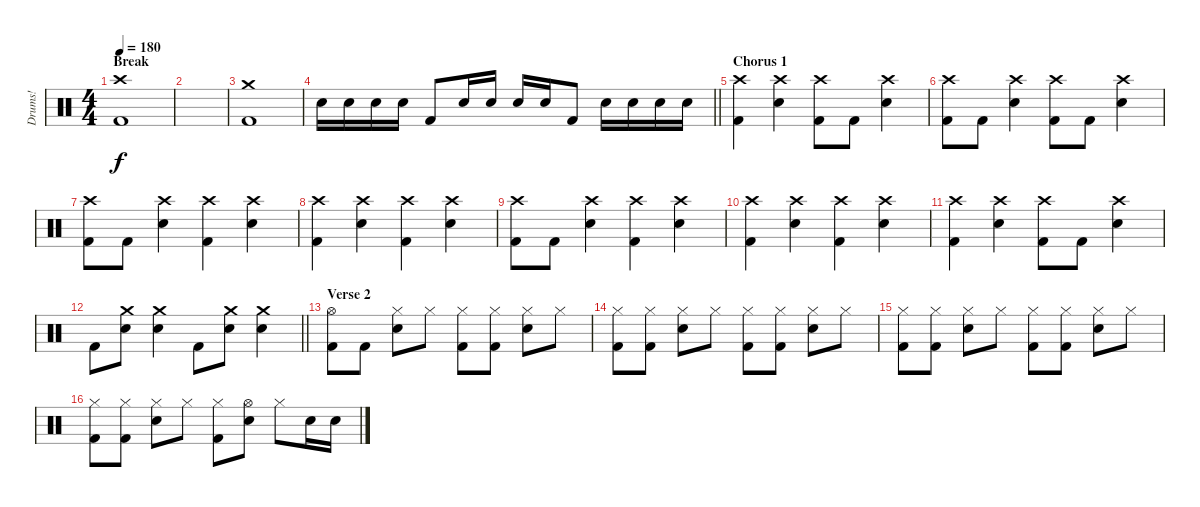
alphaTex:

\track ("Drums!" "Drums!") {instrument percussion}
\staff {score}
\articulation defaults
\ts (4 4)
\section ("" "Break")
\tempo 180
\clef neutral
\ks c
("Crash high (hit)" "Kick (hit) 2").1{dy f} |
|
("Crash medium (hit)" "Kick (hit) 2").1 |
\barLineRight lightlight "Electric Snare (hit)".16 "Electric Snare (hit)".16 "Electric Snare (hit)".16 "Electric Snare (hit)".16 "Kick (hit) 2".8 "Electric Snare (hit)".16 "Electric Snare (hit)".16 "Electric Snare (hit)".16 "Electric Snare (hit)".16 "Kick (hit) 2".8 "Electric Snare (hit)".16 "Electric Snare (hit)".16 "Electric Snare (hit)".16 "Electric Snare (hit)".16
|
\section ("" "Chorus 1")
("Crash high (hit)" "Kick (hit) 2").4 ("Crash high (hit)" "Electric Snare (hit)").4 ("Crash high (hit)" "Kick (hit) 2").8 "Kick (hit) 2".8 ("Crash high (hit)" "Electric Snare (hit)").4 |
("Crash high (hit)" "Kick (hit) 2").8 "Kick (hit) 2".8 ("Crash high (hit)" "Electric Snare (hit)").4 ("Crash high (hit)" "Kick (hit) 2").8 "Kick (hit) 2".8 ("Crash high (hit)" "Electric Snare (hit)").4 |
("Crash high (hit)" "Kick (hit) 2").8 "Kick (hit) 2".8 ("Crash high (hit)" "Electric Snare (hit)").4 ("Crash high (hit)" "Kick (hit) 2").4 ("Crash high (hit)" "Electric Snare (hit)").4 |
("Crash high (hit)" "Kick (hit) 2").4 ("Crash high (hit)" "Electric Snare (hit)").4 ("Crash high (hit)" "Kick (hit) 2").4 ("Crash high (hit)" "Electric Snare (hit)").4 |
("Crash high (hit)" "Kick (hit) 2").8 "Kick (hit) 2".8 ("Crash high (hit)" "Electric Snare (hit)").4 ("Crash high (hit)" "Kick (hit) 2").4 ("Crash high (hit)" "Electric Snare (hit)").4 |
("Crash high (hit)" "Kick (hit) 2").4 ("Crash high (hit)" "Electric Snare (hit)").4 ("Crash high (hit)" "Kick (hit) 2").4 ("Crash high (hit)" "Electric Snare (hit)").4 |
("Crash high (hit)" "Kick (hit) 2").4 ("Crash high (hit)" "Electric Snare (hit)").4 ("Crash high (hit)" "Kick (hit) 2").8 "Kick (hit) 2".8 ("Crash high (hit)" "Electric Snare (hit)").4 |
\barLineRight lightlight "Kick (hit) 2".8
("Crash medium (hit)" "Electric Snare (hit)").8 ("Crash medium (hit)" "Electric Snare (hit)").4 "Kick (hit) 2".8 ("Crash medium (hit)" "Electric Snare (hit)").8 ("Crash medium (hit)" "Electric Snare (hit)").4 |
\section ("" "Verse 2")
("Hi-Hat (open)" "Kick (hit) 2").8 "Kick (hit) 2".8 ("Hi-Hat (closed)" "Electric Snare (hit)").8 "Hi-Hat (closed)".8 ("Hi-Hat (closed)" "Kick (hit) 2").8 ("Hi-Hat (closed)" "Kick (hit) 2").8 ("Hi-Hat (closed)" "Electric Snare (hit)").8 "Hi-Hat (closed)".8 |
("Hi-Hat (closed)" "Kick (hit) 2").8 ("Hi-Hat (closed)" "Kick (hit) 2").8 ("Hi-Hat (closed)" "Electric Snare (hit)").8 "Hi-Hat (closed)".8 ("Hi-Hat (closed)" "Kick (hit) 2").8 ("Hi-Hat (closed)" "Kick (hit) 2").8 ("Hi-Hat (closed)" "Electric Snare (hit)").8 "Hi-Hat (closed)".8 |
("Hi-Hat (closed)" "Kick (hit) 2").8 ("Hi-Hat (closed)" "Kick (hit) 2").8 ("Hi-Hat (closed)" "Electric Snare (hit)").8 "Hi-Hat (closed)".8 ("Hi-Hat (closed)" "Kick (hit) 2").8 ("Hi-Hat (closed)" "Kick (hit) 2").8 ("Hi-Hat (closed)" "Electric Snare (hit)").8 "Hi-Hat (closed)".8 |
("Hi-Hat (closed)" "Kick (hit) 2").8 ("Hi-Hat (closed)" "Kick (hit) 2").8 ("Hi-Hat (closed)" "Electric Snare (hit)").8 "Hi-Hat (closed)".8 ("Hi-Hat (closed)" "Kick (hit) 2").8 ("Hi-Hat (open)" "Electric Snare (hit)").8 "Hi-Hat (closed)".8 "Electric Snare (hit)".16 "Electric Snare (hit)".16
